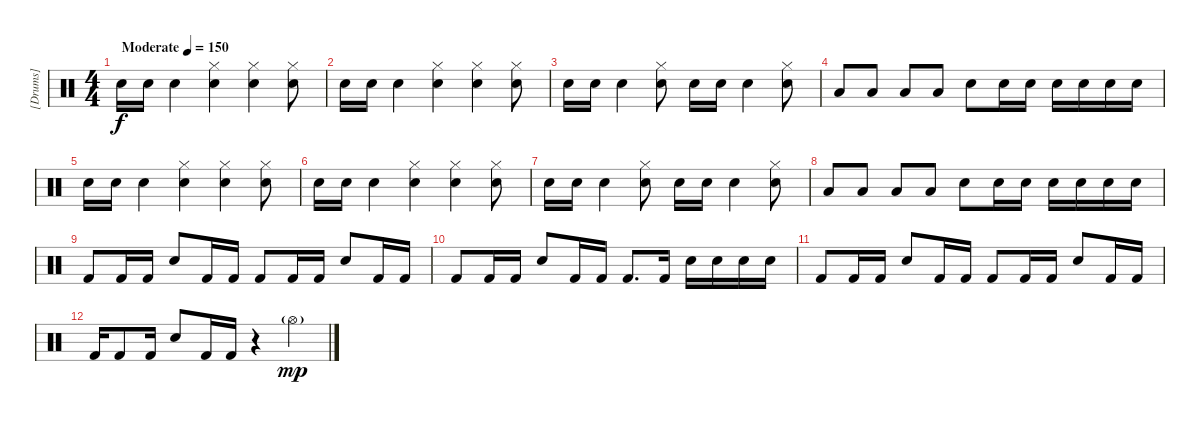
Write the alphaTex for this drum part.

\track ("[Drums]" "[Drums]") {instrument percussion}
\staff {score}
\articulation defaults
\ts (4 4)
\tempo (150 "Moderate")
\clef neutral
\ks c "Snare (hit) 2".16{dy f} "Snare (hit) 2".16 "Snare (hit) 2".4
("Hi-Hat (closed)" "Snare (hit) 2").4 ("Hi-Hat (closed)" "Snare (hit) 2").4 ("Hi-Hat (closed)" "Snare (hit) 2").8 |
"Snare (hit) 2".16 "Snare (hit) 2".16 "Snare (hit) 2".4 ("Hi-Hat (closed)" "Snare (hit) 2").4 ("Hi-Hat (closed)" "Snare (hit) 2").4 ("Hi-Hat (closed)" "Snare (hit) 2").8 |
"Snare (hit) 2".16 "Snare (hit) 2".16 "Snare (hit) 2".4 ("Hi-Hat (closed)" "Snare (hit) 2").8 "Snare (hit) 2".16 "Snare (hit) 2".16 "Snare (hit) 2".4 ("Hi-Hat (closed)" "Snare (hit) 2").8 |
"Low Tom (hit)".8 "Low Tom (hit)".8 "Low Tom (hit)".8 "Low Tom (hit)".8 "Snare (hit) 2".8 "Snare (hit) 2".16 "Snare (hit) 2".16 "Snare (hit) 2".16 "Snare (hit) 2".16 "Snare (hit) 2".16 "Snare (hit) 2".16 |
"Snare (hit) 2".16 "Snare (hit) 2".16 "Snare (hit) 2".4 ("Hi-Hat (closed)" "Snare (hit) 2").4 ("Hi-Hat (closed)" "Snare (hit) 2").4 ("Hi-Hat (closed)" "Snare (hit) 2").8 |
"Snare (hit) 2".16 "Snare (hit) 2".16 "Snare (hit) 2".4 ("Hi-Hat (closed)" "Snare (hit) 2").4 ("Hi-Hat (closed)" "Snare (hit) 2").4 ("Hi-Hat (closed)" "Snare (hit) 2").8 |
"Snare (hit) 2".16 "Snare (hit) 2".16 "Snare (hit) 2".4 ("Hi-Hat (closed)" "Snare (hit) 2").8 "Snare (hit) 2".16 "Snare (hit) 2".16 "Snare (hit) 2".4 ("Hi-Hat (closed)" "Snare (hit) 2").8 |
"Low Tom (hit)".8 "Low Tom (hit)".8 "Low Tom (hit)".8 "Low Tom (hit)".8 "Snare (hit) 2".8 "Snare (hit) 2".16 "Snare (hit) 2".16 "Snare (hit) 2".16 "Snare (hit) 2".16 "Snare (hit) 2".16 "Snare (hit) 2".16 |
"Kick (hit) 2".8 "Kick (hit) 2".16 "Kick (hit) 2".16 "Snare (hit) 2".8 "Kick (hit) 2".16 "Kick (hit) 2".16 "Kick (hit) 2".8 "Kick (hit) 2".16 "Kick (hit) 2".16 "Snare (hit) 2".8 "Kick (hit) 2".16 "Kick (hit) 2".16 |
"Kick (hit) 2".8 "Kick (hit) 2".16 "Kick (hit) 2".16 "Snare (hit) 2".8 "Kick (hit) 2".16 "Kick (hit) 2".16 "Kick (hit) 2".8{d} "Kick (hit) 2".16 "Snare (hit) 2".16 "Snare (hit) 2".16 "Snare (hit) 2".16 "Snare (hit) 2".16 |
"Kick (hit) 2".8 "Kick (hit) 2".16 "Kick (hit) 2".16 "Snare (hit) 2".8 "Kick (hit) 2".16 "Kick (hit) 2".16 "Kick (hit) 2".8 "Kick (hit) 2".16 "Kick (hit) 2".16 "Snare (hit) 2".8 "Kick (hit) 2".16 "Kick (hit) 2".16 |
"Kick (hit) 2".16 "Kick (hit) 2".8 "Kick (hit) 2".16 "Snare (hit) 2".8 "Kick (hit) 2".16 "Kick (hit) 2".16 r.4 "Hi-Hat (open)"{g}.4{dy mp}
